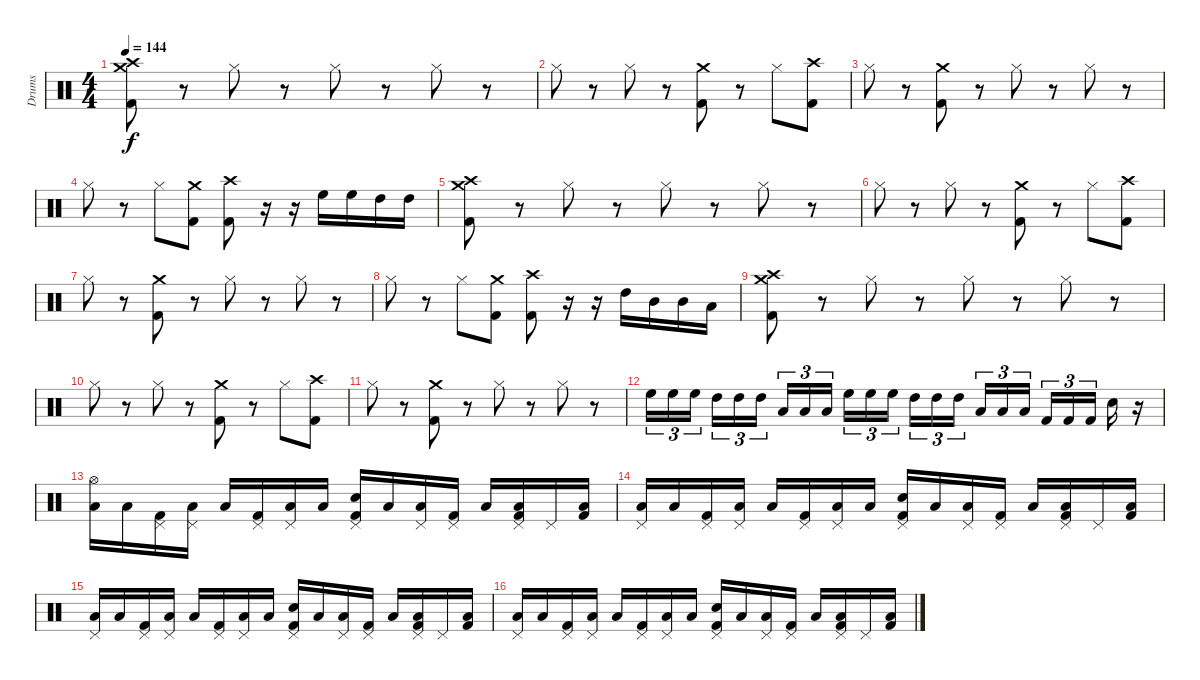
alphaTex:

\track ("Drums" "Drums") {instrument percussion}
\staff {score}
\articulation defaults
\ts (4 4)
\tempo 144
\clef neutral
\ks c
("Crash medium (hit)" "Crash high (hit)" "Kick (hit) 2").8{dy f} r.8 "Hi-Hat (closed)".8 r.8 "Hi-Hat (closed)".8 r.8 "Hi-Hat (closed)".8 r.8 |
"Hi-Hat (closed)".8 r.8 "Hi-Hat (closed)".8 r.8 ("Crash medium (hit)" "Kick (hit) 2").8 r.8 "Hi-Hat (closed)".8 ("Crash high (hit)" "Kick (hit) 2").8 |
"Hi-Hat (closed)".8 r.8 ("Crash medium (hit)" "Kick (hit) 2").8 r.8 "Hi-Hat (closed)".8 r.8 "Hi-Hat (closed)".8 r.8 |
"Hi-Hat (closed)".8 r.8 "Hi-Hat (closed)".8 ("Crash medium (hit)" "Kick (hit) 2").8 ("Crash high (hit)" "Kick (hit) 2").8 r.16 r.16 "High Floor Tom (hit)".16 "High Floor Tom (hit)".16 "High Tom (hit)".16 "High Tom (hit)".16 |
("Crash medium (hit)" "Crash high (hit)" "Kick (hit) 2").8 r.8 "Hi-Hat (closed)".8 r.8 "Hi-Hat (closed)".8 r.8 "Hi-Hat (closed)".8 r.8 |
"Hi-Hat (closed)".8 r.8 "Hi-Hat (closed)".8 r.8 ("Crash medium (hit)" "Kick (hit) 2").8 r.8 "Hi-Hat (closed)".8 ("Crash high (hit)" "Kick (hit) 2").8 |
"Hi-Hat (closed)".8 r.8 ("Crash medium (hit)" "Kick (hit) 2").8 r.8 "Hi-Hat (closed)".8 r.8 "Hi-Hat (closed)".8 r.8 |
"Hi-Hat (closed)".8 r.8 "Hi-Hat (closed)".8 ("Crash medium (hit)" "Kick (hit) 2").8 ("Crash high (hit)" "Kick (hit) 2").8 r.16 r.16 "High Tom (hit)".16 "Mid Tom (hit)".16 "Mid Tom (hit)".16 "Low Tom (hit)".16 |
("Crash medium (hit)" "Crash high (hit)" "Kick (hit) 2").8 r.8 "Hi-Hat (closed)".8 r.8 "Hi-Hat (closed)".8 r.8 "Hi-Hat (closed)".8 r.8 |
"Hi-Hat (closed)".8 r.8 "Hi-Hat (closed)".8 r.8 ("Crash medium (hit)" "Kick (hit) 2").8 r.8 "Hi-Hat (closed)".8 ("Crash high (hit)" "Kick (hit) 2").8 |
"Hi-Hat (closed)".8 r.8 ("Crash medium (hit)" "Kick (hit) 2").8 r.8 "Hi-Hat (closed)".8 r.8 "Hi-Hat (closed)".8 r.8 |
"High Floor Tom (hit)".16{tu (3 2)} "High Floor Tom (hit)".16{tu (3 2)} "High Floor Tom (hit)".16{tu (3 2)} "High Tom (hit)".16{tu (3 2)} "High Tom (hit)".16{tu (3 2)} "High Tom (hit)".16{tu (3 2)} "Low Tom (hit)".16{tu (3 2)} "Low Tom (hit)".16{tu (3 2)} "Low Tom (hit)".16{tu (3 2)} "High Floor Tom (hit)".16{tu (3 2)} "High Floor Tom (hit)".16{tu (3 2)} "High Floor Tom (hit)".16{tu (3 2)} "High Tom (hit)".16{tu (3 2)} "High Tom (hit)".16{tu (3 2)} "High Tom (hit)".16{tu (3 2)} "Low Tom (hit)".16{tu (3 2)} "Low Tom (hit)".16{tu (3 2)} "Low Tom (hit)".16{tu (3 2)} "Kick (hit) 2".16{tu (3 2)} "Kick (hit) 2".16{tu (3 2)} "Kick (hit) 2".16{tu (3 2)} "Electric Snare (hit)".16 r.16 |
("Hi-Hat (open)" "Low Floor Tom (hit)").16 "Low Floor Tom (hit)".16 ("Pedal Hi-Hat (hit)" "Kick (hit) 2").16 ("Pedal Hi-Hat (hit)" "Low Floor Tom (hit)").16 "Low Floor Tom (hit)".16 ("Pedal Hi-Hat (hit)" "Kick (hit) 2").16 ("Pedal Hi-Hat (hit)" "Low Floor Tom (hit)").16 "Low Floor Tom (hit)".16 ("Pedal Hi-Hat (hit)" "Electric Snare (hit)" "Kick (hit) 2").16 "Low Floor Tom (hit)".16 ("Pedal Hi-Hat (hit)" "Low Floor Tom (hit)").16 ("Pedal Hi-Hat (hit)" "Kick (hit) 2").16 "Low Floor Tom (hit)".16 ("Pedal Hi-Hat (hit)" "Low Floor Tom (hit)" "Kick (hit) 2").16 "Pedal Hi-Hat (hit)".16 ("Low Floor Tom (hit)" "Kick (hit) 2").16 |
("Pedal Hi-Hat (hit)" "Low Floor Tom (hit)").16 "Low Floor Tom (hit)".16 ("Pedal Hi-Hat (hit)" "Kick (hit) 2").16 ("Pedal Hi-Hat (hit)" "Low Floor Tom (hit)").16 "Low Floor Tom (hit)".16 ("Pedal Hi-Hat (hit)" "Kick (hit) 2").16 ("Pedal Hi-Hat (hit)" "Low Floor Tom (hit)").16 "Low Floor Tom (hit)".16 ("Pedal Hi-Hat (hit)" "Electric Snare (hit)" "Kick (hit) 2").16 "Low Floor Tom (hit)".16 ("Pedal Hi-Hat (hit)" "Low Floor Tom (hit)").16 ("Pedal Hi-Hat (hit)" "Kick (hit) 2").16 "Low Floor Tom (hit)".16 ("Pedal Hi-Hat (hit)" "Low Floor Tom (hit)" "Kick (hit) 2").16 "Pedal Hi-Hat (hit)".16 ("Low Floor Tom (hit)" "Kick (hit) 2").16 |
("Pedal Hi-Hat (hit)" "Low Floor Tom (hit)").16 "Low Floor Tom (hit)".16 ("Pedal Hi-Hat (hit)" "Kick (hit) 2").16 ("Pedal Hi-Hat (hit)" "Low Floor Tom (hit)").16 "Low Floor Tom (hit)".16 ("Pedal Hi-Hat (hit)" "Kick (hit) 2").16 ("Pedal Hi-Hat (hit)" "Low Floor Tom (hit)").16 "Low Floor Tom (hit)".16 ("Pedal Hi-Hat (hit)" "Electric Snare (hit)" "Kick (hit) 2").16 "Low Floor Tom (hit)".16 ("Pedal Hi-Hat (hit)" "Low Floor Tom (hit)").16 ("Pedal Hi-Hat (hit)" "Kick (hit) 2").16 "Low Floor Tom (hit)".16 ("Pedal Hi-Hat (hit)" "Low Floor Tom (hit)" "Kick (hit) 2").16 "Pedal Hi-Hat (hit)".16 ("Low Floor Tom (hit)" "Kick (hit) 2").16 |
("Pedal Hi-Hat (hit)" "Low Floor Tom (hit)").16 "Low Floor Tom (hit)".16 ("Pedal Hi-Hat (hit)" "Kick (hit) 2").16 ("Pedal Hi-Hat (hit)" "Low Floor Tom (hit)").16 "Low Floor Tom (hit)".16 ("Pedal Hi-Hat (hit)" "Kick (hit) 2").16 ("Pedal Hi-Hat (hit)" "Low Floor Tom (hit)").16 "Low Floor Tom (hit)".16 ("Pedal Hi-Hat (hit)" "Electric Snare (hit)" "Kick (hit) 2").16 "Low Floor Tom (hit)".16 ("Pedal Hi-Hat (hit)" "Low Floor Tom (hit)").16 ("Pedal Hi-Hat (hit)" "Kick (hit) 2").16 "Low Floor Tom (hit)".16 ("Pedal Hi-Hat (hit)" "Low Floor Tom (hit)" "Kick (hit) 2").16 "Pedal Hi-Hat (hit)".16 ("Low Floor Tom (hit)" "Kick (hit) 2").16
